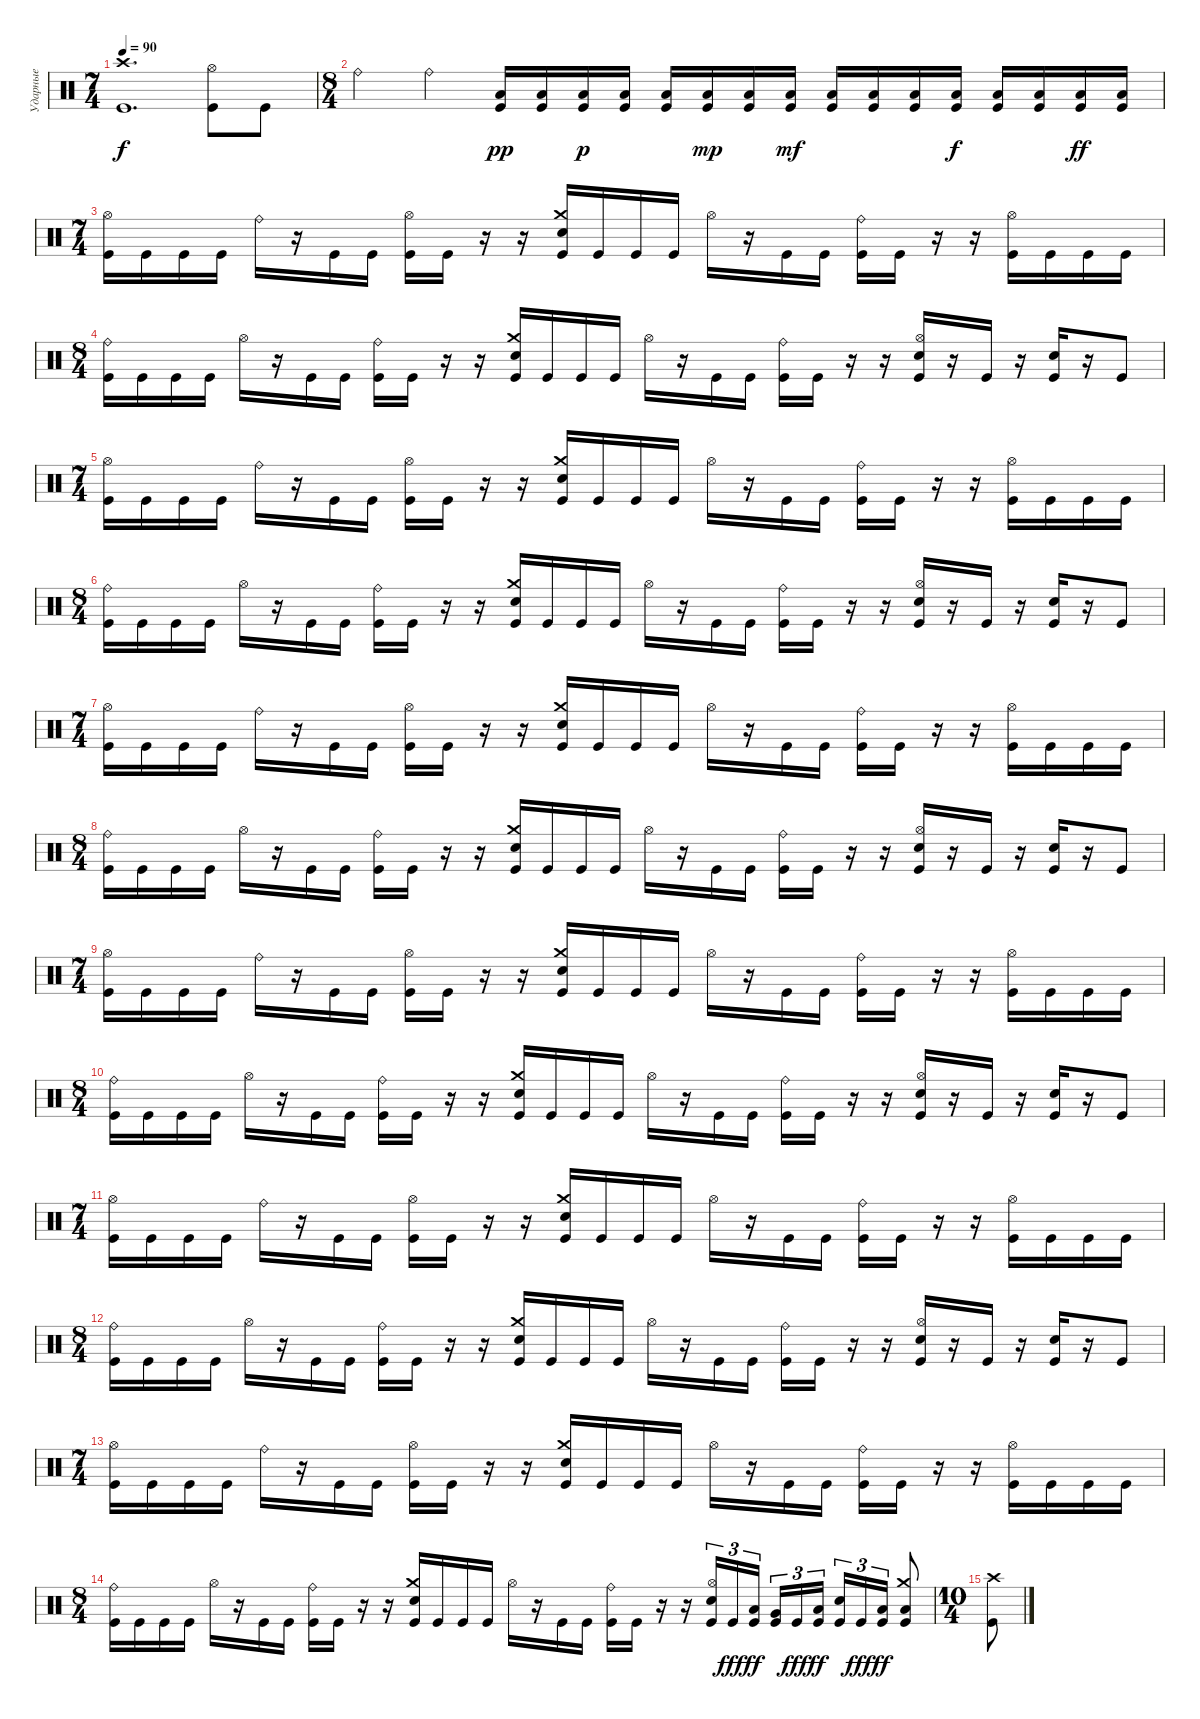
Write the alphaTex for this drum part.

\track ("Ударные" "Ударные") {instrument percussion}
\staff {score}
\articulation defaults
\ts (7 4)
\tempo 90
\clef neutral
\ks c
("Crash high (hit)" "Kick (hit)").1{d dy f} ("Kick (hit)" "Hi-Hat (open)").8 "Kick (hit)".8 |
\ts (8 4)
"Ride (bell)".2 "Ride (bell)".2 ("Kick (hit)" "Low Floor Tom (hit)").16{dy pp} ("Kick (hit)" "Low Floor Tom (hit)").16 ("Kick (hit)" "Low Floor Tom (hit)").16{dy p} ("Kick (hit)" "Low Floor Tom (hit)").16 ("Kick (hit)" "Low Floor Tom (hit)").16 ("Kick (hit)" "Low Floor Tom (hit)").16{dy mp} ("Kick (hit)" "Low Floor Tom (hit)").16 ("Kick (hit)" "Low Floor Tom (hit)").16{dy mf} ("Kick (hit)" "Low Floor Tom (hit)").16 ("Kick (hit)" "Low Floor Tom (hit)").16 ("Kick (hit)" "Low Floor Tom (hit)").16 ("Kick (hit)" "Low Floor Tom (hit)").16{dy f} ("Kick (hit)" "Low Floor Tom (hit)").16 ("Kick (hit)" "Low Floor Tom (hit)").16 ("Kick (hit)" "Low Floor Tom (hit)").16{dy ff} ("Kick (hit)" "Low Floor Tom (hit)").16 |
\ts (7 4)
("Kick (hit)" "Hi-Hat (open)").16 "Kick (hit)".16 "Kick (hit)".16 "Kick (hit)".16 "Ride (bell)".16 r.16 "Kick (hit)".16 "Kick (hit)".16 ("Kick (hit)" "Hi-Hat (open)").16 "Kick (hit)".16 r.16 r.16 ("Kick (hit)" "Crash medium (hit)" "Snare (hit) 2").16 "Kick (hit)".16 "Kick (hit)".16 "Kick (hit)".16 "Hi-Hat (open)".16 r.16 "Kick (hit)".16 "Kick (hit)".16 ("Kick (hit)" "Ride (bell)").16 "Kick (hit)".16 r.16 r.16 ("Kick (hit)" "Hi-Hat (open)").16 "Kick (hit)".16 "Kick (hit)".16 "Kick (hit)".16 |
\ts (8 4)
("Kick (hit)" "Ride (bell)").16 "Kick (hit)".16 "Kick (hit)".16 "Kick (hit)".16 "Hi-Hat (open)".16 r.16 "Kick (hit)".16 "Kick (hit)".16 ("Kick (hit)" "Ride (bell)").16 "Kick (hit)".16 r.16 r.16 ("Kick (hit)" "Crash medium (hit)" "Snare (hit) 2").16 "Kick (hit)".16 "Kick (hit)".16 "Kick (hit)".16 "Hi-Hat (open)".16 r.16 "Kick (hit)".16 "Kick (hit)".16 ("Kick (hit)" "Ride (bell)").16 "Kick (hit)".16 r.16 r.16 ("Kick (hit)" "Snare (hit) 2" "Hi-Hat (open)").16 r.16 "Kick (hit)".16 r.16 ("Kick (hit)" "Snare (hit) 2").16 r.16 "Kick (hit)".8 |
\ts (7 4)
("Kick (hit)" "Hi-Hat (open)").16 "Kick (hit)".16 "Kick (hit)".16 "Kick (hit)".16 "Ride (bell)".16 r.16 "Kick (hit)".16 "Kick (hit)".16 ("Kick (hit)" "Hi-Hat (open)").16 "Kick (hit)".16 r.16 r.16 ("Kick (hit)" "Crash medium (hit)" "Snare (hit) 2").16 "Kick (hit)".16 "Kick (hit)".16 "Kick (hit)".16 "Hi-Hat (open)".16 r.16 "Kick (hit)".16 "Kick (hit)".16 ("Kick (hit)" "Ride (bell)").16 "Kick (hit)".16 r.16 r.16 ("Kick (hit)" "Hi-Hat (open)").16 "Kick (hit)".16 "Kick (hit)".16 "Kick (hit)".16 |
\ts (8 4)
("Kick (hit)" "Ride (bell)").16 "Kick (hit)".16 "Kick (hit)".16 "Kick (hit)".16 "Hi-Hat (open)".16 r.16 "Kick (hit)".16 "Kick (hit)".16 ("Kick (hit)" "Ride (bell)").16 "Kick (hit)".16 r.16 r.16 ("Kick (hit)" "Crash medium (hit)" "Snare (hit) 2").16 "Kick (hit)".16 "Kick (hit)".16 "Kick (hit)".16 "Hi-Hat (open)".16 r.16 "Kick (hit)".16 "Kick (hit)".16 ("Kick (hit)" "Ride (bell)").16 "Kick (hit)".16 r.16 r.16 ("Kick (hit)" "Snare (hit) 2" "Hi-Hat (open)").16 r.16 "Kick (hit)".16 r.16 ("Kick (hit)" "Snare (hit) 2").16 r.16 "Kick (hit)".8 |
\ts (7 4)
("Kick (hit)" "Hi-Hat (open)").16 "Kick (hit)".16 "Kick (hit)".16 "Kick (hit)".16 "Ride (bell)".16 r.16 "Kick (hit)".16 "Kick (hit)".16 ("Kick (hit)" "Hi-Hat (open)").16 "Kick (hit)".16 r.16 r.16 ("Kick (hit)" "Crash medium (hit)" "Snare (hit) 2").16 "Kick (hit)".16 "Kick (hit)".16 "Kick (hit)".16 "Hi-Hat (open)".16 r.16 "Kick (hit)".16 "Kick (hit)".16 ("Kick (hit)" "Ride (bell)").16 "Kick (hit)".16 r.16 r.16 ("Kick (hit)" "Hi-Hat (open)").16 "Kick (hit)".16 "Kick (hit)".16 "Kick (hit)".16 |
\ts (8 4)
("Kick (hit)" "Ride (bell)").16 "Kick (hit)".16 "Kick (hit)".16 "Kick (hit)".16 "Hi-Hat (open)".16 r.16 "Kick (hit)".16 "Kick (hit)".16 ("Kick (hit)" "Ride (bell)").16 "Kick (hit)".16 r.16 r.16 ("Kick (hit)" "Crash medium (hit)" "Snare (hit) 2").16 "Kick (hit)".16 "Kick (hit)".16 "Kick (hit)".16 "Hi-Hat (open)".16 r.16 "Kick (hit)".16 "Kick (hit)".16 ("Kick (hit)" "Ride (bell)").16 "Kick (hit)".16 r.16 r.16 ("Kick (hit)" "Snare (hit) 2" "Hi-Hat (open)").16 r.16 "Kick (hit)".16 r.16 ("Kick (hit)" "Snare (hit) 2").16 r.16 "Kick (hit)".8 |
\ts (7 4)
("Kick (hit)" "Hi-Hat (open)").16 "Kick (hit)".16 "Kick (hit)".16 "Kick (hit)".16 "Ride (bell)".16 r.16 "Kick (hit)".16 "Kick (hit)".16 ("Kick (hit)" "Hi-Hat (open)").16 "Kick (hit)".16 r.16 r.16 ("Kick (hit)" "Crash medium (hit)" "Snare (hit) 2").16 "Kick (hit)".16 "Kick (hit)".16 "Kick (hit)".16 "Hi-Hat (open)".16 r.16 "Kick (hit)".16 "Kick (hit)".16 ("Kick (hit)" "Ride (bell)").16 "Kick (hit)".16 r.16 r.16 ("Kick (hit)" "Hi-Hat (open)").16 "Kick (hit)".16 "Kick (hit)".16 "Kick (hit)".16 |
\ts (8 4)
("Kick (hit)" "Ride (bell)").16 "Kick (hit)".16 "Kick (hit)".16 "Kick (hit)".16 "Hi-Hat (open)".16 r.16 "Kick (hit)".16 "Kick (hit)".16 ("Kick (hit)" "Ride (bell)").16 "Kick (hit)".16 r.16 r.16 ("Kick (hit)" "Crash medium (hit)" "Snare (hit) 2").16 "Kick (hit)".16 "Kick (hit)".16 "Kick (hit)".16 "Hi-Hat (open)".16 r.16 "Kick (hit)".16 "Kick (hit)".16 ("Kick (hit)" "Ride (bell)").16 "Kick (hit)".16 r.16 r.16 ("Kick (hit)" "Snare (hit) 2" "Hi-Hat (open)").16 r.16 "Kick (hit)".16 r.16 ("Kick (hit)" "Snare (hit) 2").16 r.16 "Kick (hit)".8 |
\ts (7 4)
("Kick (hit)" "Hi-Hat (open)").16 "Kick (hit)".16 "Kick (hit)".16 "Kick (hit)".16 "Ride (bell)".16 r.16 "Kick (hit)".16 "Kick (hit)".16 ("Kick (hit)" "Hi-Hat (open)").16 "Kick (hit)".16 r.16 r.16 ("Kick (hit)" "Crash medium (hit)" "Snare (hit) 2").16 "Kick (hit)".16 "Kick (hit)".16 "Kick (hit)".16 "Hi-Hat (open)".16 r.16 "Kick (hit)".16 "Kick (hit)".16 ("Kick (hit)" "Ride (bell)").16 "Kick (hit)".16 r.16 r.16 ("Kick (hit)" "Hi-Hat (open)").16 "Kick (hit)".16 "Kick (hit)".16 "Kick (hit)".16 |
\ts (8 4)
("Kick (hit)" "Ride (bell)").16 "Kick (hit)".16 "Kick (hit)".16 "Kick (hit)".16 "Hi-Hat (open)".16 r.16 "Kick (hit)".16 "Kick (hit)".16 ("Kick (hit)" "Ride (bell)").16 "Kick (hit)".16 r.16 r.16 ("Kick (hit)" "Crash medium (hit)" "Snare (hit) 2").16 "Kick (hit)".16 "Kick (hit)".16 "Kick (hit)".16 "Hi-Hat (open)".16 r.16 "Kick (hit)".16 "Kick (hit)".16 ("Kick (hit)" "Ride (bell)").16 "Kick (hit)".16 r.16 r.16 ("Kick (hit)" "Snare (hit) 2" "Hi-Hat (open)").16 r.16 "Kick (hit)".16 r.16 ("Kick (hit)" "Snare (hit) 2").16 r.16 "Kick (hit)".8 |
\ts (7 4)
("Kick (hit)" "Hi-Hat (open)").16 "Kick (hit)".16 "Kick (hit)".16 "Kick (hit)".16 "Ride (bell)".16 r.16 "Kick (hit)".16 "Kick (hit)".16 ("Kick (hit)" "Hi-Hat (open)").16 "Kick (hit)".16 r.16 r.16 ("Kick (hit)" "Crash medium (hit)" "Snare (hit) 2").16 "Kick (hit)".16 "Kick (hit)".16 "Kick (hit)".16 "Hi-Hat (open)".16 r.16 "Kick (hit)".16 "Kick (hit)".16 ("Kick (hit)" "Ride (bell)").16 "Kick (hit)".16 r.16 r.16 ("Kick (hit)" "Hi-Hat (open)").16 "Kick (hit)".16 "Kick (hit)".16 "Kick (hit)".16 |
\ts (8 4)
("Kick (hit)" "Ride (bell)").16 "Kick (hit)".16 "Kick (hit)".16 "Kick (hit)".16 "Hi-Hat (open)".16 r.16 "Kick (hit)".16 "Kick (hit)".16 ("Kick (hit)" "Ride (bell)").16 "Kick (hit)".16 r.16 r.16 ("Kick (hit)" "Crash medium (hit)" "Snare (hit) 2").16 "Kick (hit)".16 "Kick (hit)".16 "Kick (hit)".16 "Hi-Hat (open)".16 r.16 "Kick (hit)".16 "Kick (hit)".16 ("Kick (hit)" "Ride (bell)").16 "Kick (hit)".16 r.16 r.16 ("Kick (hit)" "Snare (hit) 2" "Hi-Hat (open)").16{tu (3 2)} "Kick (hit)".16{tu (3 2) dy fff} ("Kick (hit)" "Low Floor Tom (hit)").16{tu (3 2) dy ff beam splitsecondary} ("Kick (hit)" "Very Low Tom (hit)").16{tu (3 2)} "Kick (hit)".16{tu (3 2) dy fff} ("Kick (hit)" "Low Floor Tom (hit)").16{tu (3 2) dy ff} ("Kick (hit)" "Snare (hit) 2").16{tu (3 2)} "Kick (hit)".16{tu (3 2) dy fff} ("Kick (hit)" "Low Floor Tom (hit)").16{tu (3 2) dy ff} ("Kick (hit)" "Crash medium (hit)" "Low Tom (hit)").8 |
\ts (10 4)
("Crash high (hit)" "Kick (hit)").8
